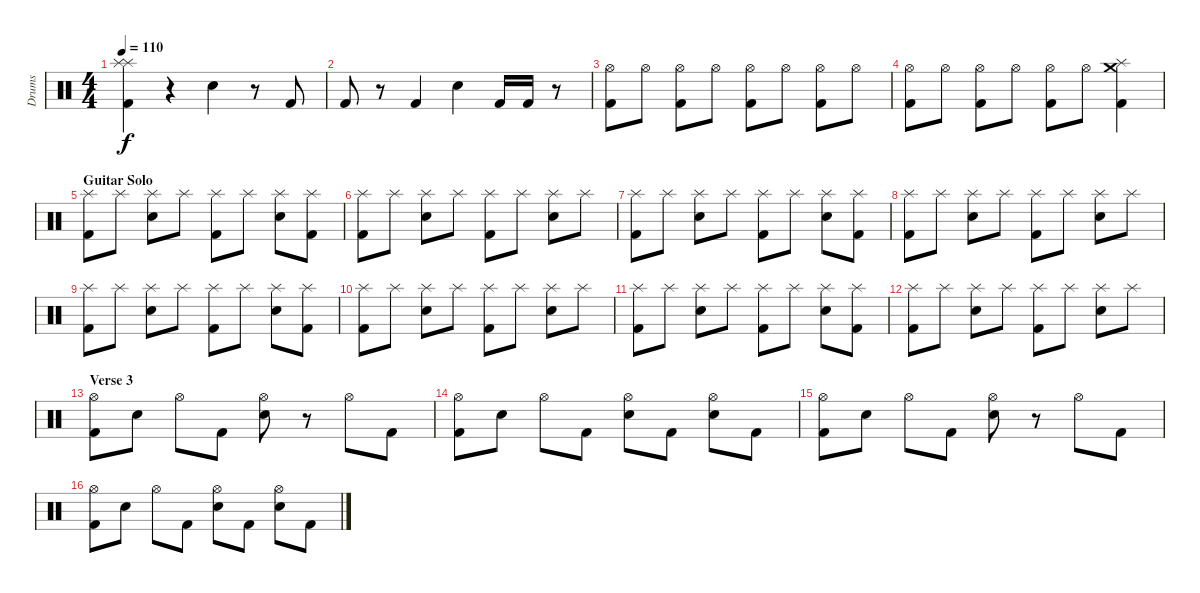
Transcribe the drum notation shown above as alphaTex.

\track ("Drums" "Drums") {instrument percussion}
\staff {score}
\articulation defaults
\ts (4 4)
\tempo 110
\clef neutral
\ks c
("Splash (hit)" "Splash (hit)" "Kick (hit) 2").4{dy f} r.4{volume 5} "Snare (hit) 2".4 r.8 "Kick (hit) 2".8 |
"Kick (hit) 2".8 r.8 "Kick (hit) 2".4 "Snare (hit) 2".4 "Kick (hit) 2".16 "Kick (hit) 2".16 r.8 |
("Hi-Hat (open)" "Kick (hit) 2").8{volume 13} "Hi-Hat (open)".8 ("Hi-Hat (open)" "Kick (hit) 2").8 "Hi-Hat (open)".8 ("Hi-Hat (open)" "Kick (hit) 2").8 "Hi-Hat (open)".8 ("Hi-Hat (open)" "Kick (hit) 2").8 "Hi-Hat (open)".8 |
("Hi-Hat (open)" "Kick (hit) 2").8 "Hi-Hat (open)".8 ("Hi-Hat (open)" "Kick (hit) 2").8 "Hi-Hat (open)".8 ("Hi-Hat (open)" "Kick (hit) 2").8 "Hi-Hat (open)".8 ("Crash medium (hit)" "Splash (hit)" "Kick (hit) 2").4 |
\section ("" "Guitar Solo")
("Splash (hit)" "Kick (hit) 2").8 "Splash (hit)".8 ("Splash (hit)" "Snare (hit) 2").8 "Splash (hit)".8 ("Splash (hit)" "Kick (hit) 2").8 "Splash (hit)".8 ("Splash (hit)" "Snare (hit) 2").8 ("Splash (hit)" "Kick (hit) 2").8 |
("Splash (hit)" "Kick (hit) 2").8 "Splash (hit)".8 ("Splash (hit)" "Snare (hit) 2").8 "Splash (hit)".8 ("Splash (hit)" "Kick (hit) 2").8 "Splash (hit)".8 ("Splash (hit)" "Snare (hit) 2").8 "Splash (hit)".8 |
("Splash (hit)" "Kick (hit) 2").8 "Splash (hit)".8 ("Splash (hit)" "Snare (hit) 2").8 "Splash (hit)".8 ("Splash (hit)" "Kick (hit) 2").8 "Splash (hit)".8 ("Splash (hit)" "Snare (hit) 2").8 ("Splash (hit)" "Kick (hit) 2").8 |
("Splash (hit)" "Kick (hit) 2").8 "Splash (hit)".8 ("Splash (hit)" "Snare (hit) 2").8 "Splash (hit)".8 ("Splash (hit)" "Kick (hit) 2").8 "Splash (hit)".8 ("Splash (hit)" "Snare (hit) 2").8 "Splash (hit)".8 |
("Splash (hit)" "Kick (hit) 2").8 "Splash (hit)".8 ("Splash (hit)" "Snare (hit) 2").8 "Splash (hit)".8 ("Splash (hit)" "Kick (hit) 2").8 "Splash (hit)".8 ("Splash (hit)" "Snare (hit) 2").8 ("Splash (hit)" "Kick (hit) 2").8 |
("Splash (hit)" "Kick (hit) 2").8 "Splash (hit)".8 ("Splash (hit)" "Snare (hit) 2").8 "Splash (hit)".8 ("Splash (hit)" "Kick (hit) 2").8 "Splash (hit)".8 ("Splash (hit)" "Snare (hit) 2").8 "Splash (hit)".8 |
("Splash (hit)" "Kick (hit) 2").8 "Splash (hit)".8 ("Splash (hit)" "Snare (hit) 2").8 "Splash (hit)".8 ("Splash (hit)" "Kick (hit) 2").8 "Splash (hit)".8 ("Splash (hit)" "Snare (hit) 2").8 ("Splash (hit)" "Kick (hit) 2").8 |
("Splash (hit)" "Kick (hit) 2").8 "Splash (hit)".8 ("Splash (hit)" "Snare (hit) 2").8 "Splash (hit)".8 ("Splash (hit)" "Kick (hit) 2").8 "Splash (hit)".8 ("Splash (hit)" "Snare (hit) 2").8 "Splash (hit)".8 |
\section ("" "Verse 3")
("Hi-Hat (open)" "Kick (hit) 2").8 "Snare (hit) 2".8 "Hi-Hat (open)".8 "Kick (hit) 2".8 ("Hi-Hat (open)" "Snare (hit) 2").8 r.8 "Hi-Hat (open)".8 "Kick (hit) 2".8 |
("Hi-Hat (open)" "Kick (hit) 2").8 "Snare (hit) 2".8 "Hi-Hat (open)".8 "Kick (hit) 2".8 ("Hi-Hat (open)" "Snare (hit) 2").8 "Kick (hit) 2".8 ("Hi-Hat (open)" "Snare (hit) 2").8 "Kick (hit) 2".8 |
("Hi-Hat (open)" "Kick (hit) 2").8 "Snare (hit) 2".8 "Hi-Hat (open)".8 "Kick (hit) 2".8 ("Hi-Hat (open)" "Snare (hit) 2").8 r.8 "Hi-Hat (open)".8 "Kick (hit) 2".8 |
("Hi-Hat (open)" "Kick (hit) 2").8 "Snare (hit) 2".8 "Hi-Hat (open)".8 "Kick (hit) 2".8 ("Hi-Hat (open)" "Snare (hit) 2").8 "Kick (hit) 2".8 ("Hi-Hat (open)" "Snare (hit) 2").8 "Kick (hit) 2".8
